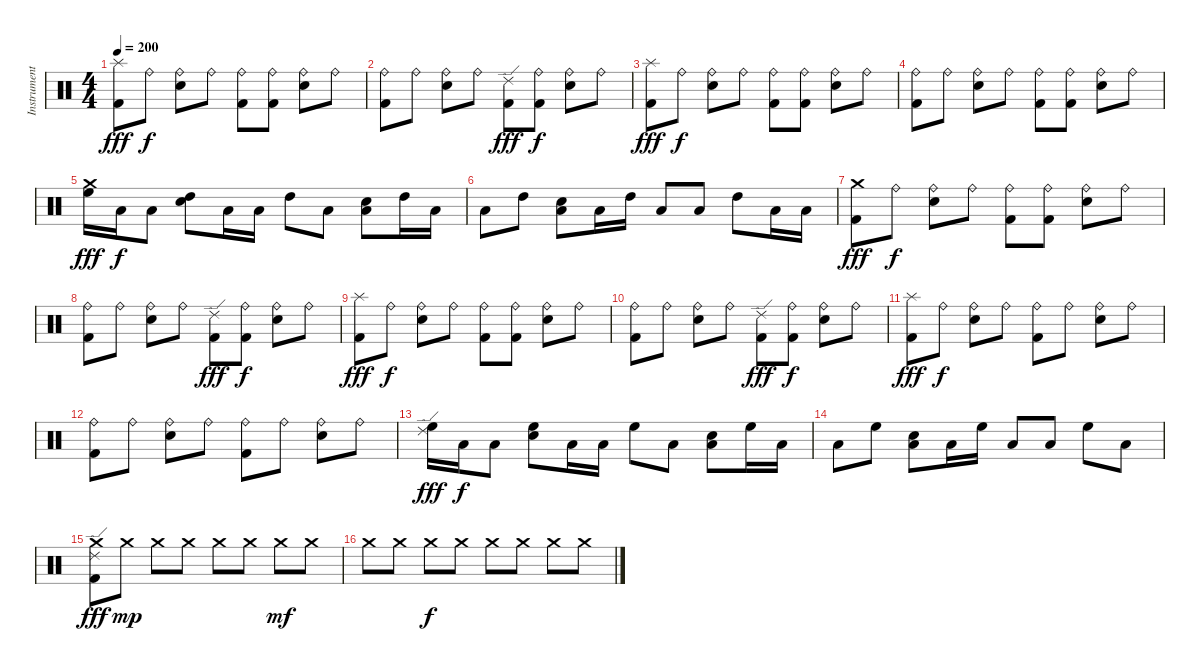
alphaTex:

\track ("Instrument 03" "Instrument") {instrument percussion}
\staff {score}
\articulation defaults
\ts (4 4)
\tempo 200
\clef neutral
\ks c
("Kick (hit) 2" "Splash (hit)").8{dy fff} "Ride (bell)".8{dy f} ("Snare (hit) 2" "Ride (bell)").8 "Ride (bell)".8 ("Kick (hit) 2" "Ride (bell)").8 ("Kick (hit) 2" "Ride (bell)").8 ("Snare (hit) 2" "Ride (bell)").8 "Ride (bell)".8 |
("Kick (hit) 2" "Ride (bell)").8 "Ride (bell)".8 ("Snare (hit) 2" "Ride (bell)").8 "Ride (bell)".8 ("Kick (hit) 2" "Ride (edge) 2").8{dy fff} ("Kick (hit) 2" "Ride (bell)").8{dy f} ("Snare (hit) 2" "Ride (bell)").8 "Ride (bell)".8 |
("Kick (hit) 2" "Splash (hit)").8{dy fff} "Ride (bell)".8{dy f} ("Snare (hit) 2" "Ride (bell)").8 "Ride (bell)".8 ("Kick (hit) 2" "Ride (bell)").8 ("Kick (hit) 2" "Ride (bell)").8 ("Snare (hit) 2" "Ride (bell)").8 "Ride (bell)".8 |
("Kick (hit) 2" "Ride (bell)").8 "Ride (bell)".8 ("Snare (hit) 2" "Ride (bell)").8 "Ride (bell)".8 ("Kick (hit) 2" "Ride (bell)").8 ("Kick (hit) 2" "Ride (bell)").8 ("Snare (hit) 2" "Ride (bell)").8 "Ride (bell)".8 |
("High Floor Tom (hit)" "Crash medium (hit)").16{dy fff} "Low Tom (hit)".16{dy f} "Low Floor Tom (hit)".8 ("Snare (hit) 2" "High Tom (hit)").8 "Low Tom (hit)".16 "Low Floor Tom (hit)".16 "High Tom (hit)".8 "Low Tom (hit)".8 ("Snare (hit) 2" "Low Floor Tom (hit)").8 "High Tom (hit)".16 "Low Tom (hit)".16 |
"Low Floor Tom (hit)".8 "High Tom (hit)".8 ("Snare (hit) 2" "Low Tom (hit)").8 "Low Floor Tom (hit)".16 "High Tom (hit)".16 "Low Tom (hit)".8 "Low Floor Tom (hit)".8 "High Tom (hit)".8 "Low Tom (hit)".16 "Low Floor Tom (hit)".16 |
("Kick (hit) 2" "Crash medium (hit)").8{dy fff} "Ride (bell)".8{dy f} ("Snare (hit) 2" "Ride (bell)").8 "Ride (bell)".8 ("Kick (hit) 2" "Ride (bell)").8 ("Kick (hit) 2" "Ride (bell)").8 ("Snare (hit) 2" "Ride (bell)").8 "Ride (bell)".8 |
("Kick (hit) 2" "Ride (bell)").8 "Ride (bell)".8 ("Snare (hit) 2" "Ride (bell)").8 "Ride (bell)".8 ("Kick (hit) 2" "Ride (edge) 2").8{dy fff} ("Kick (hit) 2" "Ride (bell)").8{dy f} ("Snare (hit) 2" "Ride (bell)").8 "Ride (bell)".8 |
("Kick (hit) 2" "Splash (hit)").8{dy fff} "Ride (bell)".8{dy f} ("Snare (hit) 2" "Ride (bell)").8 "Ride (bell)".8 ("Kick (hit) 2" "Ride (bell)").8 ("Kick (hit) 2" "Ride (bell)").8 ("Snare (hit) 2" "Ride (bell)").8 "Ride (bell)".8 |
("Kick (hit) 2" "Ride (bell)").8 "Ride (bell)".8 ("Snare (hit) 2" "Ride (bell)").8 "Ride (bell)".8 ("Kick (hit) 2" "Ride (edge) 2").8{dy fff} ("Kick (hit) 2" "Ride (bell)").8{dy f} ("Snare (hit) 2" "Ride (bell)").8 "Ride (bell)".8 |
("Kick (hit) 2" "Splash (hit)").8{dy fff} "Ride (bell)".8{dy f} ("Snare (hit) 2" "Ride (bell)").8 "Ride (bell)".8 ("Kick (hit) 2" "Ride (bell)").8 "Ride (bell)".8 ("Snare (hit) 2" "Ride (bell)").8 "Ride (bell)".8 |
("Kick (hit) 2" "Ride (bell)").8 "Ride (bell)".8 ("Snare (hit) 2" "Ride (bell)").8 "Ride (bell)".8 ("Kick (hit) 2" "Ride (bell)").8 "Ride (bell)".8 ("Snare (hit) 2" "Ride (bell)").8 "Ride (bell)".8 |
("High Floor Tom (hit)" "Ride (edge) 2").16{dy fff} "Low Tom (hit)".16{dy f} "Low Floor Tom (hit)".8 ("Snare (hit) 2" "High Floor Tom (hit)").8 "Low Tom (hit)".16 "Low Floor Tom (hit)".16 "High Floor Tom (hit)".8 "Low Tom (hit)".8 ("Snare (hit) 2" "Low Floor Tom (hit)").8 "High Floor Tom (hit)".16 "Low Tom (hit)".16 |
"Low Floor Tom (hit)".8 "High Floor Tom (hit)".8 ("Snare (hit) 2" "Low Tom (hit)").8 "Low Floor Tom (hit)".16 "High Floor Tom (hit)".16 "Low Tom (hit)".8 "Low Floor Tom (hit)".8 "High Floor Tom (hit)".8 "Low Tom (hit)".8 |
("Kick (hit) 2" "Crash medium (hit)" "Ride (edge) 2").8{dy fff} "Crash medium (hit)".8{dy mp} "Crash medium (hit)".8 "Crash medium (hit)".8 "Crash medium (hit)".8 "Crash medium (hit)".8 "Crash medium (hit)".8{dy mf} "Crash medium (hit)".8 |
"Crash medium (hit)".8 "Crash medium (hit)".8 "Crash medium (hit)".8{dy f} "Crash medium (hit)".8 "Crash medium (hit)".8 "Crash medium (hit)".8 "Crash medium (hit)".8 "Crash medium (hit)".8
